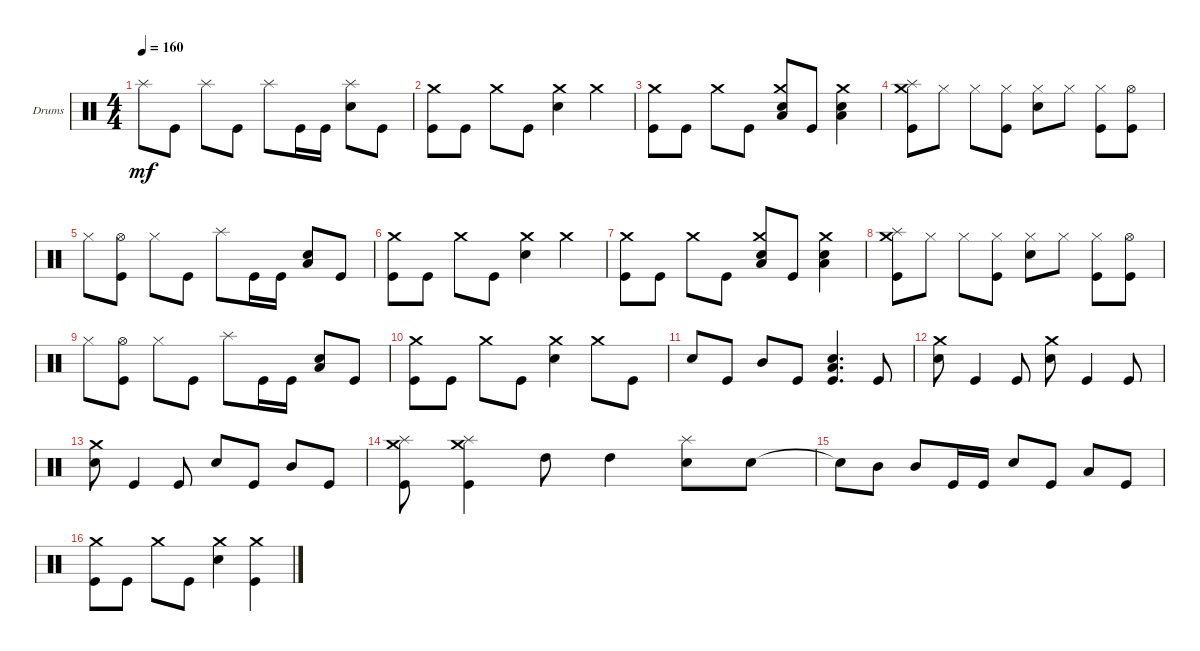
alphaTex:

\bracketExtendMode groupsimilarinstruments
\firstSystemTrackNameOrientation horizontal
\otherSystemsTrackNameOrientation horizontal
\track ("Drums" "Drums") {instrument percussion}
\staff {score}
\articulation defaults
\ts (4 4)
\tempo 160
\clef neutral
\ks c "Splash (hit)".8{dy mf} "Kick (hit)".8 "Splash (hit)".8 "Kick (hit)".8 "Splash (hit)".8 "Kick (hit)".16 "Kick (hit)".16
("Snare (hit) 2" "Splash (hit)").8 "Kick (hit)".8 |
("Kick (hit)" "Crash medium (hit)").8 "Kick (hit)".8 "Crash medium (hit)".8 "Kick (hit)".8 ("Snare (hit) 2" "Crash medium (hit)").4 "Crash medium (hit)".4 |
("Kick (hit)" "Crash medium (hit)").8 "Kick (hit)".8 "Crash medium (hit)".8 "Kick (hit)".8 ("Snare (hit) 2" "Low Tom (hit)" "Crash medium (hit)").8 "Kick (hit)".8 ("Snare (hit) 2" "Low Tom (hit)" "Crash medium (hit)").4 |
("Kick (hit)" "Splash (hit)" "Crash medium (hit)").8 "Hi-Hat (closed)".8 "Hi-Hat (closed)".8 ("Kick (hit)" "Hi-Hat (closed)").8 ("Snare (hit) 2" "Hi-Hat (closed)").8 "Hi-Hat (closed)".8 ("Kick (hit)" "Hi-Hat (closed)").8 ("Kick (hit)" "Hi-Hat (open)").8 |
"Hi-Hat (closed)".8 ("Kick (hit)" "Hi-Hat (open)").8 "Hi-Hat (closed)".8 "Kick (hit)".8 "Splash (hit)".8 "Kick (hit)".16 "Kick (hit)".16 ("Snare (hit) 2" "Low Tom (hit)").8 "Kick (hit)".8 |
("Kick (hit)" "Crash medium (hit)").8 "Kick (hit)".8 "Crash medium (hit)".8 "Kick (hit)".8 ("Snare (hit) 2" "Crash medium (hit)").4 "Crash medium (hit)".4 |
("Kick (hit)" "Crash medium (hit)").8 "Kick (hit)".8 "Crash medium (hit)".8 "Kick (hit)".8 ("Snare (hit) 2" "Low Tom (hit)" "Crash medium (hit)").8 "Kick (hit)".8 ("Snare (hit) 2" "Low Tom (hit)" "Crash medium (hit)").4 |
("Kick (hit)" "Splash (hit)" "Crash medium (hit)").8 "Hi-Hat (closed)".8 "Hi-Hat (closed)".8 ("Kick (hit)" "Hi-Hat (closed)").8 ("Snare (hit) 2" "Hi-Hat (closed)").8 "Hi-Hat (closed)".8 ("Kick (hit)" "Hi-Hat (closed)").8 ("Kick (hit)" "Hi-Hat (open)").8 |
"Hi-Hat (closed)".8 ("Kick (hit)" "Hi-Hat (open)").8 "Hi-Hat (closed)".8 "Kick (hit)".8 "Splash (hit)".8 "Kick (hit)".16 "Kick (hit)".16 ("Snare (hit) 2" "Low Tom (hit)").8 "Kick (hit)".8 |
("Kick (hit)" "Crash medium (hit)").8 "Kick (hit)".8 "Crash medium (hit)".8 "Kick (hit)".8 ("Snare (hit) 2" "Crash medium (hit)").4 "Crash medium (hit)".8 "Kick (hit)".8 |
"Snare (hit) 2".8 "Kick (hit)".8 "Mid Tom (hit)".8 "Kick (hit)".8 ("Kick (hit)" "Snare (hit) 2" "Low Tom (hit)").4{d} "Kick (hit)".8 |
("Snare (hit) 2" "Crash medium (hit)").8 "Kick (hit)".4 "Kick (hit)".8 ("Snare (hit) 2" "Crash medium (hit)").8 "Kick (hit)".4 "Kick (hit)".8 |
("Snare (hit) 2" "Crash medium (hit)").8 "Kick (hit)".4 "Kick (hit)".8 "Snare (hit) 2".8 "Kick (hit)".8 "Mid Tom (hit)".8 "Kick (hit)".8 |
("Kick (hit)" "Splash (hit)" "Crash medium (hit)").8 ("Kick (hit)" "Splash (hit)" "Crash medium (hit)").4 "High Tom (hit)".8 "High Tom (hit)".4 ("Snare (hit) 2" "Splash (hit)").8 "Snare (hit) 2".8 |
"Snare (hit) 2"{t}.8 "Mid Tom (hit)".8 "Mid Tom (hit)".8 "Kick (hit)".16 "Kick (hit)".16 "Snare (hit) 2".8 "Kick (hit)".8 "Low Tom (hit)".8 "Kick (hit)".8 |
("Kick (hit)" "Crash medium (hit)").8 "Kick (hit)".8 "Crash medium (hit)".8 "Kick (hit)".8 ("Snare (hit) 2" "Crash medium (hit)").4 ("Kick (hit)" "Crash medium (hit)").4
